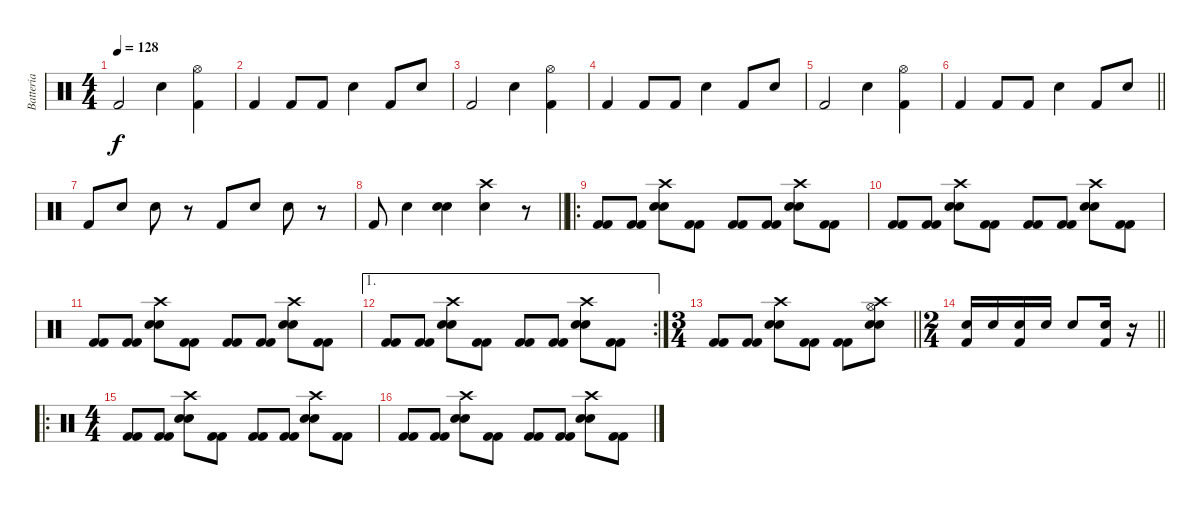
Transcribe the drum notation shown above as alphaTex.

\track ("Batteria" "Batteria") {instrument percussion}
\staff {score}
\articulation defaults
\ts (4 4)
\tempo 128
\clef neutral
\ks c "Kick (hit) 2".2{dy f} "Snare (hit) 2".4
("Hi-Hat (open)" "Kick (hit) 2").4 |
"Kick (hit) 2".4 "Kick (hit) 2".8 "Kick (hit) 2".8 "Snare (hit) 2".4 "Kick (hit) 2".8 "Snare (hit) 2".8 |
"Kick (hit) 2".2 "Snare (hit) 2".4 ("Hi-Hat (open)" "Kick (hit) 2").4 |
"Kick (hit) 2".4 "Kick (hit) 2".8 "Kick (hit) 2".8 "Snare (hit) 2".4 "Kick (hit) 2".8 "Snare (hit) 2".8 |
"Kick (hit) 2".2 "Snare (hit) 2".4 ("Hi-Hat (open)" "Kick (hit) 2").4 |
\barLineRight lightlight "Kick (hit) 2".4 "Kick (hit) 2".8 "Kick (hit) 2".8 "Snare (hit) 2".4 "Kick (hit) 2".8 "Snare (hit) 2".8
|
"Kick (hit) 2".8 "Electric Snare (hit)".8 "Electric Snare (hit)".8 r.8 "Kick (hit) 2".8 "Electric Snare (hit)".8 "Electric Snare (hit)".8 r.8 |
\barLineRight lightlight "Kick (hit) 2".8 "Electric Snare (hit)".4
("Electric Snare (hit)" "Snare (hit) 2").4 ("Electric Snare (hit)" "Crash high (hit)").4 r.8 |
\ro
("Kick (hit) 2" "Kick (hit) 2").8 ("Kick (hit) 2" "Kick (hit) 2").8 ("Crash high (hit)" "Electric Snare (hit)" "Snare (hit) 2").8 ("Kick (hit) 2" "Kick (hit) 2").8 ("Kick (hit) 2" "Kick (hit) 2").8 ("Kick (hit) 2" "Kick (hit) 2").8 ("Crash high (hit)" "Electric Snare (hit)" "Snare (hit) 2").8 ("Kick (hit) 2" "Kick (hit) 2").8 |
("Kick (hit) 2" "Kick (hit) 2").8 ("Kick (hit) 2" "Kick (hit) 2").8 ("Crash high (hit)" "Electric Snare (hit)" "Snare (hit) 2").8 ("Kick (hit) 2" "Kick (hit) 2").8 ("Kick (hit) 2" "Kick (hit) 2").8 ("Kick (hit) 2" "Kick (hit) 2").8 ("Crash high (hit)" "Electric Snare (hit)" "Snare (hit) 2").8 ("Kick (hit) 2" "Kick (hit) 2").8 |
("Kick (hit) 2" "Kick (hit) 2").8 ("Kick (hit) 2" "Kick (hit) 2").8 ("Crash high (hit)" "Electric Snare (hit)" "Snare (hit) 2").8 ("Kick (hit) 2" "Kick (hit) 2").8 ("Kick (hit) 2" "Kick (hit) 2").8 ("Kick (hit) 2" "Kick (hit) 2").8 ("Crash high (hit)" "Electric Snare (hit)" "Snare (hit) 2").8 ("Kick (hit) 2" "Kick (hit) 2").8 |
\ae 1
\rc 2
("Kick (hit) 2" "Kick (hit) 2").8 ("Kick (hit) 2" "Kick (hit) 2").8 ("Crash high (hit)" "Electric Snare (hit)" "Snare (hit) 2").8 ("Kick (hit) 2" "Kick (hit) 2").8 ("Kick (hit) 2" "Kick (hit) 2").8 ("Kick (hit) 2" "Kick (hit) 2").8 ("Crash high (hit)" "Electric Snare (hit)" "Snare (hit) 2").8 ("Kick (hit) 2" "Kick (hit) 2").8 |
\ts (3 4)
\barLineRight lightlight
("Kick (hit) 2" "Kick (hit) 2").8 ("Kick (hit) 2" "Kick (hit) 2").8 ("Crash high (hit)" "Electric Snare (hit)" "Snare (hit) 2").8 ("Kick (hit) 2" "Kick (hit) 2").8 ("Kick (hit) 2" "Kick (hit) 2").8 ("Hi-Hat (open)" "Crash high (hit)" "Snare (hit) 2" "Electric Snare (hit)").8 |
\ts (2 4)
\barLineRight lightlight
("Snare (hit) 2" "Kick (hit) 2").16 "Snare (hit) 2".16 ("Snare (hit) 2" "Kick (hit) 2").16 "Snare (hit) 2".16 "Snare (hit) 2".8 ("Electric Snare (hit)" "Kick (hit) 2").16 r.16 |
\ro
\ts (4 4)
("Kick (hit) 2" "Kick (hit) 2").8 ("Kick (hit) 2" "Kick (hit) 2").8 ("Crash high (hit)" "Electric Snare (hit)" "Snare (hit) 2").8 ("Kick (hit) 2" "Kick (hit) 2").8 ("Kick (hit) 2" "Kick (hit) 2").8 ("Kick (hit) 2" "Kick (hit) 2").8 ("Crash high (hit)" "Electric Snare (hit)" "Snare (hit) 2").8 ("Kick (hit) 2" "Kick (hit) 2").8 |
("Kick (hit) 2" "Kick (hit) 2").8 ("Kick (hit) 2" "Kick (hit) 2").8 ("Crash high (hit)" "Electric Snare (hit)" "Snare (hit) 2").8 ("Kick (hit) 2" "Kick (hit) 2").8 ("Kick (hit) 2" "Kick (hit) 2").8 ("Kick (hit) 2" "Kick (hit) 2").8 ("Crash high (hit)" "Electric Snare (hit)" "Snare (hit) 2").8 ("Kick (hit) 2" "Kick (hit) 2").8
